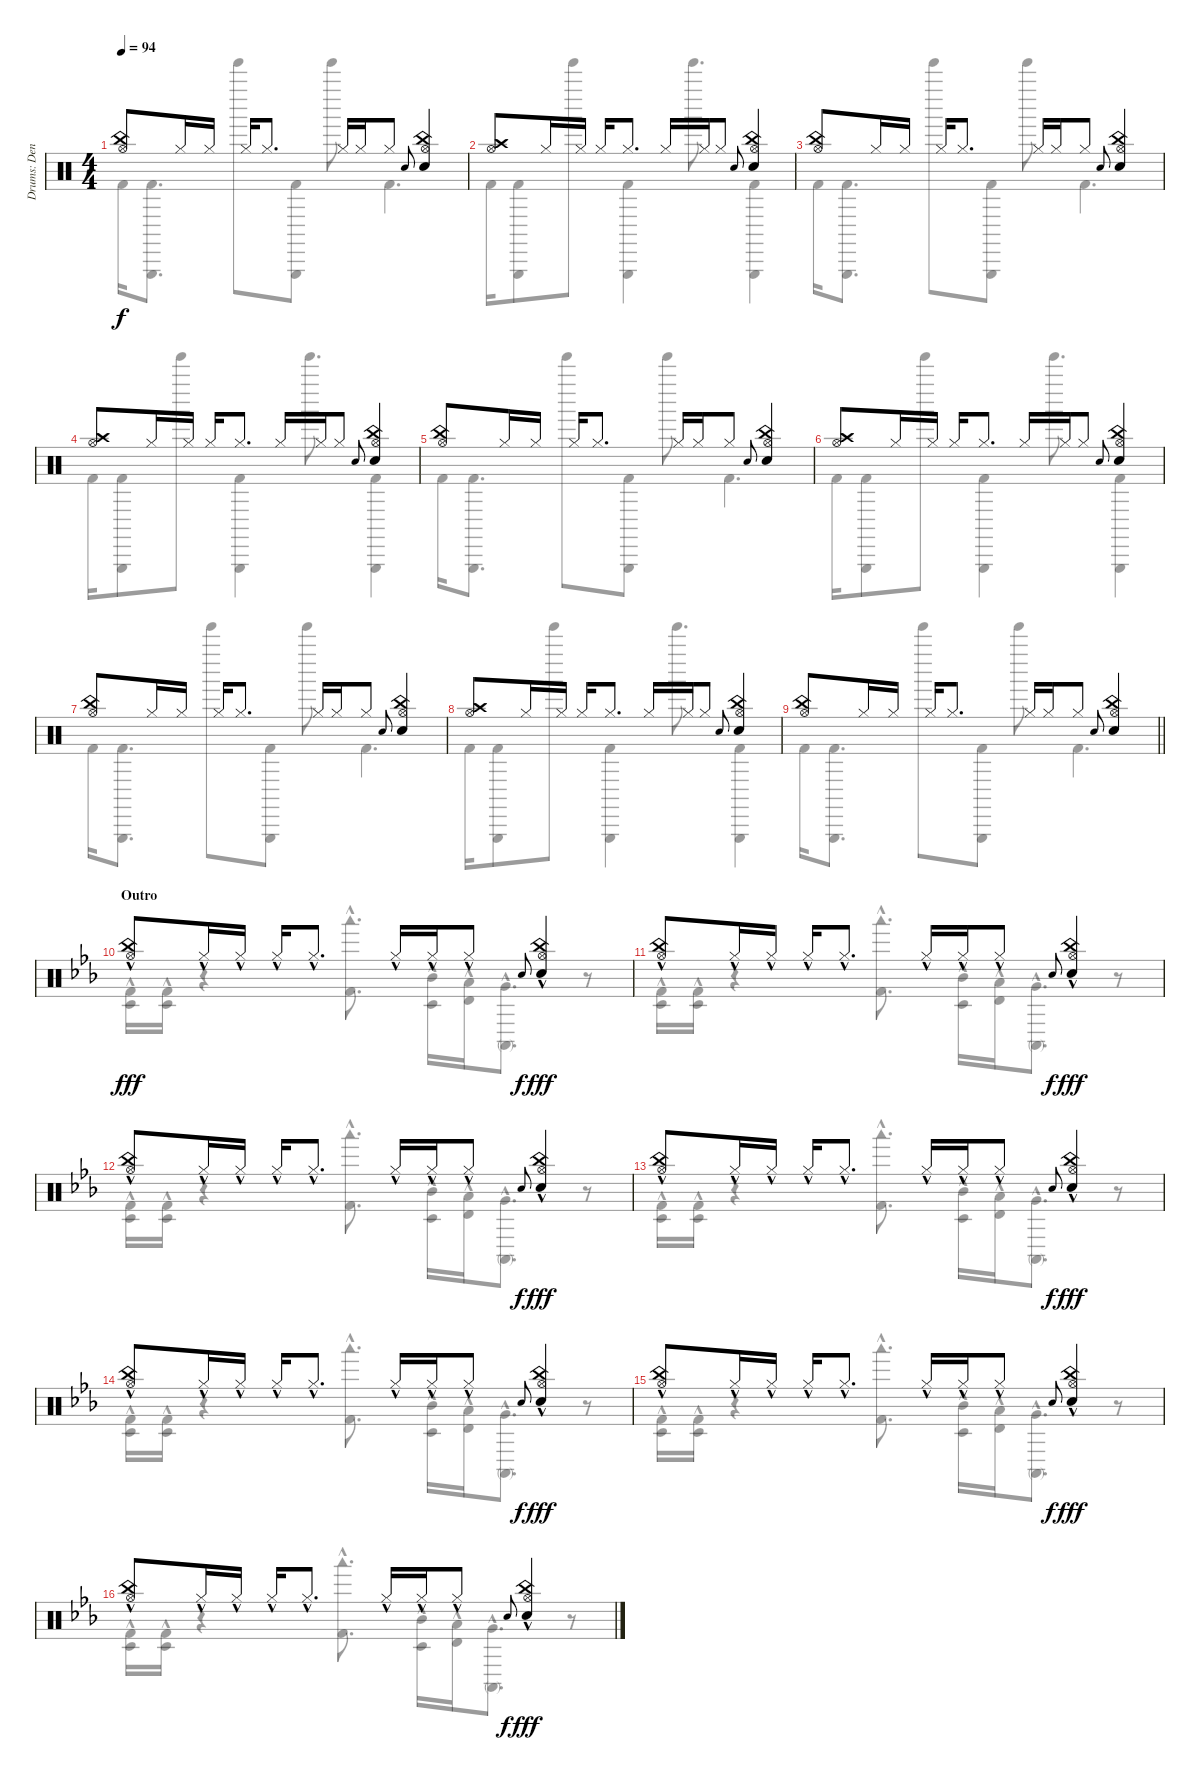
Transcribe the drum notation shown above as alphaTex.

\track ("Drums: Denny" "Drums: Den") {instrument percussion}
\staff {score}
\articulation defaults
\voice
\ts (4 4)
\tempo 94
\clef neutral
\ks c
("China (hit)" "Hi-Hat (open)").8{dy f} "Hi-Hat (closed)".16 "Hi-Hat (closed)".16 "Hi-Hat (closed)".16 "Hi-Hat (closed)".8{d} "Hi-Hat (closed)".16 "Hi-Hat (closed)".16 "Hi-Hat (closed)".8 "Electric Snare (hit)".8{gr onbeat} ("China (hit)" "Hi-Hat (open)" "Snare (hit) 2").4 |
("Crash high (hit)" "Hi-Hat (open)").8 "Hi-Hat (closed)".16 "Hi-Hat (closed)".16 "Hi-Hat (closed)".16 "Hi-Hat (closed)".8{d} "Hi-Hat (closed)".16 "Hi-Hat (closed)".16 "Hi-Hat (closed)".8 "Electric Snare (hit)".8{gr onbeat} ("China (hit)" "Hi-Hat (open)" "Snare (hit) 2").4 |
("China (hit)" "Hi-Hat (open)").8 "Hi-Hat (closed)".16 "Hi-Hat (closed)".16 "Hi-Hat (closed)".16 "Hi-Hat (closed)".8{d} "Hi-Hat (closed)".16 "Hi-Hat (closed)".16 "Hi-Hat (closed)".8 "Electric Snare (hit)".8{gr onbeat} ("China (hit)" "Hi-Hat (open)" "Snare (hit) 2").4 |
("Crash high (hit)" "Hi-Hat (open)").8 "Hi-Hat (closed)".16 "Hi-Hat (closed)".16 "Hi-Hat (closed)".16 "Hi-Hat (closed)".8{d} "Hi-Hat (closed)".16 "Hi-Hat (closed)".16 "Hi-Hat (closed)".8 "Electric Snare (hit)".8{gr onbeat} ("China (hit)" "Hi-Hat (open)" "Snare (hit) 2").4 |
("China (hit)" "Hi-Hat (open)").8 "Hi-Hat (closed)".16 "Hi-Hat (closed)".16 "Hi-Hat (closed)".16 "Hi-Hat (closed)".8{d} "Hi-Hat (closed)".16 "Hi-Hat (closed)".16 "Hi-Hat (closed)".8 "Electric Snare (hit)".8{gr onbeat} ("China (hit)" "Hi-Hat (open)" "Snare (hit) 2").4 |
("Crash high (hit)" "Hi-Hat (open)").8 "Hi-Hat (closed)".16 "Hi-Hat (closed)".16 "Hi-Hat (closed)".16 "Hi-Hat (closed)".8{d} "Hi-Hat (closed)".16 "Hi-Hat (closed)".16 "Hi-Hat (closed)".8 "Electric Snare (hit)".8{gr onbeat} ("China (hit)" "Hi-Hat (open)" "Snare (hit) 2").4 |
("China (hit)" "Hi-Hat (open)").8 "Hi-Hat (closed)".16 "Hi-Hat (closed)".16 "Hi-Hat (closed)".16 "Hi-Hat (closed)".8{d} "Hi-Hat (closed)".16 "Hi-Hat (closed)".16 "Hi-Hat (closed)".8 "Electric Snare (hit)".8{gr onbeat} ("China (hit)" "Hi-Hat (open)" "Snare (hit) 2").4 |
("Crash high (hit)" "Hi-Hat (open)").8 "Hi-Hat (closed)".16 "Hi-Hat (closed)".16 "Hi-Hat (closed)".16 "Hi-Hat (closed)".8{d} "Hi-Hat (closed)".16 "Hi-Hat (closed)".16 "Hi-Hat (closed)".8 "Electric Snare (hit)".8{gr onbeat} ("China (hit)" "Hi-Hat (open)" "Snare (hit) 2").4 |
\barLineRight lightlight
("China (hit)" "Hi-Hat (open)").8 "Hi-Hat (closed)".16 "Hi-Hat (closed)".16 "Hi-Hat (closed)".16 "Hi-Hat (closed)".8{d} "Hi-Hat (closed)".16 "Hi-Hat (closed)".16 "Hi-Hat (closed)".8 "Electric Snare (hit)".8{gr onbeat} ("China (hit)" "Hi-Hat (open)" "Snare (hit) 2").4 |
\section ("" "Outro")
\ks eb
("China (hit)"{hac} "Hi-Hat (open)"{hac}).8{dy fff} "Hi-Hat (closed)"{hac}.16 "Hi-Hat (closed)"{hac}.16 "Hi-Hat (closed)"{hac}.16 "Hi-Hat (closed)"{hac}.8{d} "Hi-Hat (closed)"{hac}.16 "Hi-Hat (closed)"{hac}.16 "Hi-Hat (closed)"{hac}.8 "Electric Snare (hit)".8{gr onbeat dy f} ("China (hit)"{hac} "Hi-Hat (open)"{hac} "Snare (hit) 2"{hac}).4{dy fff} |
("China (hit)"{hac} "Hi-Hat (open)"{hac}).8 "Hi-Hat (closed)"{hac}.16 "Hi-Hat (closed)"{hac}.16 "Hi-Hat (closed)"{hac}.16 "Hi-Hat (closed)"{hac}.8{d} "Hi-Hat (closed)"{hac}.16 "Hi-Hat (closed)"{hac}.16 "Hi-Hat (closed)"{hac}.8 "Electric Snare (hit)".8{gr onbeat dy f} ("China (hit)"{hac} "Hi-Hat (open)"{hac} "Snare (hit) 2"{hac}).4{dy fff} |
("China (hit)"{hac} "Hi-Hat (open)"{hac}).8 "Hi-Hat (closed)"{hac}.16 "Hi-Hat (closed)"{hac}.16 "Hi-Hat (closed)"{hac}.16 "Hi-Hat (closed)"{hac}.8{d} "Hi-Hat (closed)"{hac}.16 "Hi-Hat (closed)"{hac}.16 "Hi-Hat (closed)"{hac}.8 "Electric Snare (hit)".8{gr onbeat dy f} ("China (hit)"{hac} "Hi-Hat (open)"{hac} "Snare (hit) 2"{hac}).4{dy fff} |
("China (hit)"{hac} "Hi-Hat (open)"{hac}).8 "Hi-Hat (closed)"{hac}.16 "Hi-Hat (closed)"{hac}.16 "Hi-Hat (closed)"{hac}.16 "Hi-Hat (closed)"{hac}.8{d} "Hi-Hat (closed)"{hac}.16 "Hi-Hat (closed)"{hac}.16 "Hi-Hat (closed)"{hac}.8 "Electric Snare (hit)".8{gr onbeat dy f} ("China (hit)"{hac} "Hi-Hat (open)"{hac} "Snare (hit) 2"{hac}).4{dy fff} |
("China (hit)"{hac} "Hi-Hat (open)"{hac}).8 "Hi-Hat (closed)"{hac}.16 "Hi-Hat (closed)"{hac}.16 "Hi-Hat (closed)"{hac}.16 "Hi-Hat (closed)"{hac}.8{d} "Hi-Hat (closed)"{hac}.16 "Hi-Hat (closed)"{hac}.16 "Hi-Hat (closed)"{hac}.8 "Electric Snare (hit)".8{gr onbeat dy f} ("China (hit)"{hac} "Hi-Hat (open)"{hac} "Snare (hit) 2"{hac}).4{dy fff} |
("China (hit)"{hac} "Hi-Hat (open)"{hac}).8 "Hi-Hat (closed)"{hac}.16 "Hi-Hat (closed)"{hac}.16 "Hi-Hat (closed)"{hac}.16 "Hi-Hat (closed)"{hac}.8{d} "Hi-Hat (closed)"{hac}.16 "Hi-Hat (closed)"{hac}.16 "Hi-Hat (closed)"{hac}.8 "Electric Snare (hit)".8{gr onbeat dy f} ("China (hit)"{hac} "Hi-Hat (open)"{hac} "Snare (hit) 2"{hac}).4{dy fff} |
("China (hit)"{hac} "Hi-Hat (open)"{hac}).8 "Hi-Hat (closed)"{hac}.16 "Hi-Hat (closed)"{hac}.16 "Hi-Hat (closed)"{hac}.16 "Hi-Hat (closed)"{hac}.8{d} "Hi-Hat (closed)"{hac}.16 "Hi-Hat (closed)"{hac}.16 "Hi-Hat (closed)"{hac}.8 "Electric Snare (hit)".8{gr onbeat dy f} ("China (hit)"{hac} "Hi-Hat (open)"{hac} "Snare (hit) 2"{hac}).4{dy fff}
\voice
\clef neutral
\ottava regular
\simile none
\ks c "Kick (hit) 2".16{dy f}
("Kick (hit) 2" "Triangle (hit)").8{d} "Tinkle Bell (hit)".8 ("Kick (hit) 2" "Triangle (hit)").8 "Tinkle Bell (hit)".8 "Kick (hit) 2".4{d} |
"Kick (hit) 2".16 ("Kick (hit) 2" "Triangle (hit)").8 "Tinkle Bell (hit)".8 ("Kick (hit) 2" "Triangle (hit)").4 "Tinkle Bell (hit)".8{d} ("Kick (hit) 2" "Triangle (hit)").4 |
"Kick (hit) 2".16 ("Kick (hit) 2" "Triangle (hit)").8{d} "Tinkle Bell (hit)".8 ("Kick (hit) 2" "Triangle (hit)").8 "Tinkle Bell (hit)".8 "Kick (hit) 2".4{d} |
"Kick (hit) 2".16 ("Kick (hit) 2" "Triangle (hit)").8 "Tinkle Bell (hit)".8 ("Kick (hit) 2" "Triangle (hit)").4 "Tinkle Bell (hit)".8{d} ("Kick (hit) 2" "Triangle (hit)").4 |
"Kick (hit) 2".16 ("Kick (hit) 2" "Triangle (hit)").8{d} "Tinkle Bell (hit)".8 ("Kick (hit) 2" "Triangle (hit)").8 "Tinkle Bell (hit)".8 "Kick (hit) 2".4{d} |
"Kick (hit) 2".16 ("Kick (hit) 2" "Triangle (hit)").8 "Tinkle Bell (hit)".8 ("Kick (hit) 2" "Triangle (hit)").4 "Tinkle Bell (hit)".8{d} ("Kick (hit) 2" "Triangle (hit)").4 |
"Kick (hit) 2".16 ("Kick (hit) 2" "Triangle (hit)").8{d} "Tinkle Bell (hit)".8 ("Kick (hit) 2" "Triangle (hit)").8 "Tinkle Bell (hit)".8 "Kick (hit) 2".4{d} |
"Kick (hit) 2".16 ("Kick (hit) 2" "Triangle (hit)").8 "Tinkle Bell (hit)".8 ("Kick (hit) 2" "Triangle (hit)").4 "Tinkle Bell (hit)".8{d} ("Kick (hit) 2" "Triangle (hit)").4 |
\barLineRight lightlight "Kick (hit) 2".16
("Kick (hit) 2" "Triangle (hit)").8{d} "Tinkle Bell (hit)".8 ("Kick (hit) 2" "Triangle (hit)").8 "Tinkle Bell (hit)".8 "Kick (hit) 2".4{d} |
\ks eb
("Kick (hit) 2"{hac} "Timbale low (hit)"{hac}).16{dy fff} ("Kick (hit) 2"{hac} "Timbale low (hit)"{hac}).16 r.4 ("Kick (hit) 2"{hac} "Woodblock low (hit)"{hac}).8{d} ("Mid Tom (hit)"{hac} "Timbale low (hit)"{hac}).16 ("Low Tom (hit)"{hac} "Timbale high (hit)"{hac}).16 ("Very Low Tom (hit)"{hac} "Conga high (mute)"{hac}).8{d} r.8 |
("Kick (hit) 2"{hac} "Timbale low (hit)"{hac}).16 ("Kick (hit) 2"{hac} "Timbale low (hit)"{hac}).16 r.4 ("Kick (hit) 2"{hac} "Woodblock low (hit)"{hac}).8{d} ("Mid Tom (hit)"{hac} "Timbale low (hit)"{hac}).16 ("Low Tom (hit)"{hac} "Timbale high (hit)"{hac}).16 ("Very Low Tom (hit)"{hac} "Conga high (mute)"{hac}).8{d} r.8 |
("Kick (hit) 2"{hac} "Timbale low (hit)"{hac}).16 ("Kick (hit) 2"{hac} "Timbale low (hit)"{hac}).16 r.4 ("Kick (hit) 2"{hac} "Woodblock low (hit)"{hac}).8{d} ("Mid Tom (hit)"{hac} "Timbale low (hit)"{hac}).16 ("Low Tom (hit)"{hac} "Timbale high (hit)"{hac}).16 ("Very Low Tom (hit)"{hac} "Conga high (mute)"{hac}).8{d} r.8 |
("Kick (hit) 2"{hac} "Timbale low (hit)"{hac}).16 ("Kick (hit) 2"{hac} "Timbale low (hit)"{hac}).16 r.4 ("Kick (hit) 2"{hac} "Woodblock low (hit)"{hac}).8{d} ("Mid Tom (hit)"{hac} "Timbale low (hit)"{hac}).16 ("Low Tom (hit)"{hac} "Timbale high (hit)"{hac}).16 ("Very Low Tom (hit)"{hac} "Conga high (mute)"{hac}).8{d} r.8 |
("Kick (hit) 2"{hac} "Timbale low (hit)"{hac}).16 ("Kick (hit) 2"{hac} "Timbale low (hit)"{hac}).16 r.4 ("Kick (hit) 2"{hac} "Woodblock low (hit)"{hac}).8{d} ("Mid Tom (hit)"{hac} "Timbale low (hit)"{hac}).16 ("Low Tom (hit)"{hac} "Timbale high (hit)"{hac}).16 ("Very Low Tom (hit)"{hac} "Conga high (mute)"{hac}).8{d} r.8 |
("Kick (hit) 2"{hac} "Timbale low (hit)"{hac}).16 ("Kick (hit) 2"{hac} "Timbale low (hit)"{hac}).16 r.4 ("Kick (hit) 2"{hac} "Woodblock low (hit)"{hac}).8{d} ("Mid Tom (hit)"{hac} "Timbale low (hit)"{hac}).16 ("Low Tom (hit)"{hac} "Timbale high (hit)"{hac}).16 ("Very Low Tom (hit)"{hac} "Conga high (mute)"{hac}).8{d} r.8 |
("Kick (hit) 2"{hac} "Timbale low (hit)"{hac}).16 ("Kick (hit) 2"{hac} "Timbale low (hit)"{hac}).16 r.4 ("Kick (hit) 2"{hac} "Woodblock low (hit)"{hac}).8{d} ("Mid Tom (hit)"{hac} "Timbale low (hit)"{hac}).16 ("Low Tom (hit)"{hac} "Timbale high (hit)"{hac}).16 ("Very Low Tom (hit)"{hac} "Conga high (mute)"{hac}).8{d} r.8
